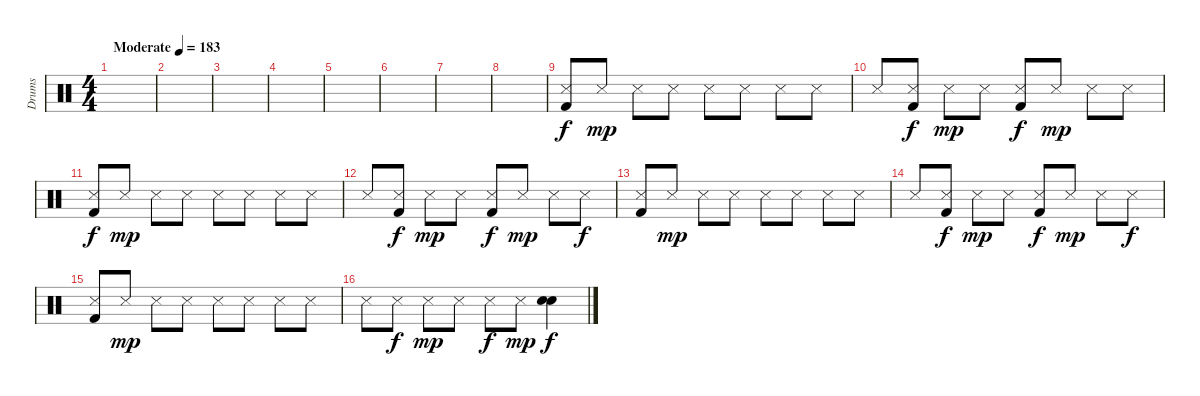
\track ("Drums" "Drums") {instrument percussion}
\staff {score}
\articulation defaults
\ts (4 4)
\tempo (183 "Moderate")
\clef neutral
\ks c
|
|
|
|
|
|
|
|
("Snare (side stick) 3" "Kick (hit) 2").8 "Snare (side stick) 3".8{dy mp} "Snare (side stick) 3".8 "Snare (side stick) 3".8 "Snare (side stick) 3".8 "Snare (side stick) 3".8 "Snare (side stick) 3".8 "Snare (side stick) 3".8 |
"Snare (side stick) 3".8 ("Snare (side stick) 3" "Kick (hit) 2").8{dy f} "Snare (side stick) 3".8{dy mp} "Snare (side stick) 3".8 ("Snare (side stick) 3" "Kick (hit) 2").8{dy f} "Snare (side stick) 3".8{dy mp} "Snare (side stick) 3".8 "Snare (side stick) 3".8 |
("Snare (side stick) 3" "Kick (hit) 2").8{dy f} "Snare (side stick) 3".8{dy mp} "Snare (side stick) 3".8 "Snare (side stick) 3".8 "Snare (side stick) 3".8 "Snare (side stick) 3".8 "Snare (side stick) 3".8 "Snare (side stick) 3".8 |
"Snare (side stick) 3".8 ("Snare (side stick) 3" "Kick (hit) 2").8{dy f} "Snare (side stick) 3".8{dy mp} "Snare (side stick) 3".8 ("Snare (side stick) 3" "Kick (hit) 2").8{dy f} "Snare (side stick) 3".8{dy mp} "Snare (side stick) 3".8 "Snare (side stick) 3".8{dy f} |
("Snare (side stick) 3" "Kick (hit) 2").8 "Snare (side stick) 3".8{dy mp} "Snare (side stick) 3".8 "Snare (side stick) 3".8 "Snare (side stick) 3".8 "Snare (side stick) 3".8 "Snare (side stick) 3".8 "Snare (side stick) 3".8 |
"Snare (side stick) 3".8 ("Snare (side stick) 3" "Kick (hit) 2").8{dy f} "Snare (side stick) 3".8{dy mp} "Snare (side stick) 3".8 ("Snare (side stick) 3" "Kick (hit) 2").8{dy f} "Snare (side stick) 3".8{dy mp} "Snare (side stick) 3".8 "Snare (side stick) 3".8{dy f} |
("Snare (side stick) 3" "Kick (hit) 2").8 "Snare (side stick) 3".8{dy mp} "Snare (side stick) 3".8 "Snare (side stick) 3".8 "Snare (side stick) 3".8 "Snare (side stick) 3".8 "Snare (side stick) 3".8 "Snare (side stick) 3".8 |
"Snare (side stick) 3".8 "Snare (side stick) 3".8{dy f} "Snare (side stick) 3".8{dy mp} "Snare (side stick) 3".8 "Snare (side stick) 3".8{dy f} "Snare (side stick) 3".8{dy mp} ("Electric Snare (hit)" "Electric Snare (hit)").4{dy f}
